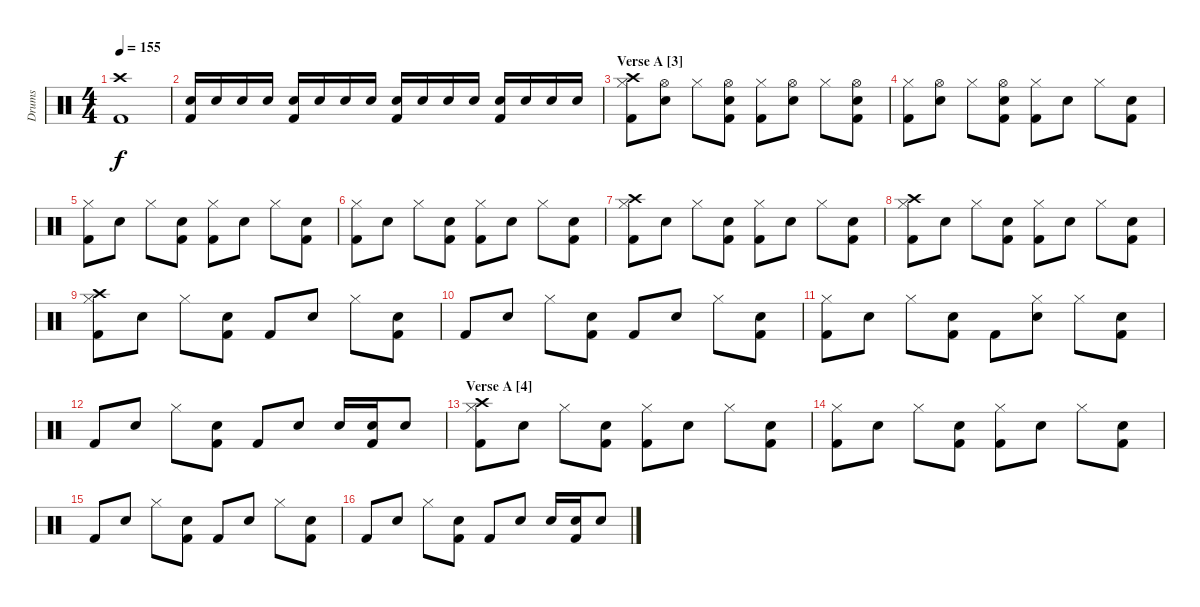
\track ("Drums" "Drums") {instrument percussion}
\staff {score}
\articulation defaults
\ts (4 4)
\tempo 155
\clef neutral
\ks c
("Crash high (hit)" "Kick (hit) 2").1{dy f} |
("Electric Snare (hit)" "Kick (hit) 2").16 "Electric Snare (hit)".16 "Electric Snare (hit)".16 "Electric Snare (hit)".16 ("Electric Snare (hit)" "Kick (hit) 2").16 "Electric Snare (hit)".16 "Electric Snare (hit)".16 "Electric Snare (hit)".16 ("Electric Snare (hit)" "Kick (hit) 2").16 "Electric Snare (hit)".16 "Electric Snare (hit)".16 "Electric Snare (hit)".16 ("Electric Snare (hit)" "Kick (hit) 2").16 "Electric Snare (hit)".16 "Electric Snare (hit)".16 "Electric Snare (hit)".16 |
\section ("" "Verse A [3]")
("Crash high (hit)" "Hi-Hat (closed)" "Kick (hit) 2").8 ("Hi-Hat (open)" "Electric Snare (hit)").8 "Hi-Hat (closed)".8 ("Hi-Hat (open)" "Electric Snare (hit)" "Kick (hit) 2").8 ("Hi-Hat (closed)" "Kick (hit) 2").8 ("Hi-Hat (open)" "Electric Snare (hit)").8 "Hi-Hat (closed)".8 ("Hi-Hat (open)" "Electric Snare (hit)" "Kick (hit) 2").8 |
("Hi-Hat (closed)" "Kick (hit) 2").8 ("Hi-Hat (open)" "Electric Snare (hit)").8 "Hi-Hat (closed)".8 ("Hi-Hat (open)" "Electric Snare (hit)" "Kick (hit) 2").8 ("Hi-Hat (closed)" "Kick (hit) 2").8 "Electric Snare (hit)".8 "Hi-Hat (closed)".8 ("Electric Snare (hit)" "Kick (hit) 2").8 |
("Hi-Hat (closed)" "Kick (hit) 2").8 "Electric Snare (hit)".8 "Hi-Hat (closed)".8 ("Electric Snare (hit)" "Kick (hit) 2").8 ("Hi-Hat (closed)" "Kick (hit) 2").8 "Electric Snare (hit)".8 "Hi-Hat (closed)".8 ("Electric Snare (hit)" "Kick (hit) 2").8 |
("Hi-Hat (closed)" "Kick (hit) 2").8 "Electric Snare (hit)".8 "Hi-Hat (closed)".8 ("Electric Snare (hit)" "Kick (hit) 2").8 ("Hi-Hat (closed)" "Kick (hit) 2").8 "Electric Snare (hit)".8 "Hi-Hat (closed)".8 ("Electric Snare (hit)" "Kick (hit) 2").8 |
("Crash high (hit)" "Hi-Hat (closed)" "Kick (hit) 2").8 "Electric Snare (hit)".8 "Hi-Hat (closed)".8 ("Electric Snare (hit)" "Kick (hit) 2").8 ("Hi-Hat (closed)" "Kick (hit) 2").8 "Electric Snare (hit)".8 "Hi-Hat (closed)".8 ("Electric Snare (hit)" "Kick (hit) 2").8 |
("Crash high (hit)" "Hi-Hat (closed)" "Kick (hit) 2").8 "Electric Snare (hit)".8 "Hi-Hat (closed)".8 ("Electric Snare (hit)" "Kick (hit) 2").8 ("Hi-Hat (closed)" "Kick (hit) 2").8 "Electric Snare (hit)".8 "Hi-Hat (closed)".8 ("Electric Snare (hit)" "Kick (hit) 2").8 |
("Crash high (hit)" "Hi-Hat (closed)" "Kick (hit) 2").8 "Electric Snare (hit)".8 "Hi-Hat (closed)".8 ("Electric Snare (hit)" "Kick (hit) 2").8 "Kick (hit) 2".8 "Electric Snare (hit)".8 "Hi-Hat (closed)".8 ("Electric Snare (hit)" "Kick (hit) 2").8 |
"Kick (hit) 2".8 "Electric Snare (hit)".8 "Hi-Hat (closed)".8 ("Electric Snare (hit)" "Kick (hit) 2").8 "Kick (hit) 2".8 "Electric Snare (hit)".8 "Hi-Hat (closed)".8 ("Electric Snare (hit)" "Kick (hit) 2").8 |
("Hi-Hat (closed)" "Kick (hit) 2").8 "Electric Snare (hit)".8 "Hi-Hat (closed)".8 ("Electric Snare (hit)" "Kick (hit) 2").8 "Kick (hit) 2".8 ("Hi-Hat (closed)" "Electric Snare (hit)").8 "Hi-Hat (closed)".8 ("Electric Snare (hit)" "Kick (hit) 2").8 |
"Kick (hit) 2".8 "Electric Snare (hit)".8 "Hi-Hat (closed)".8 ("Electric Snare (hit)" "Kick (hit) 2").8 "Kick (hit) 2".8 "Electric Snare (hit)".8 "Electric Snare (hit)".16 ("Electric Snare (hit)" "Kick (hit) 2").16 "Electric Snare (hit)".8 |
\section ("" "Verse A [4]")
("Crash high (hit)" "Hi-Hat (closed)" "Kick (hit) 2").8 "Electric Snare (hit)".8 "Hi-Hat (closed)".8 ("Electric Snare (hit)" "Kick (hit) 2").8 ("Hi-Hat (closed)" "Kick (hit) 2").8 "Electric Snare (hit)".8 "Hi-Hat (closed)".8 ("Electric Snare (hit)" "Kick (hit) 2").8 |
("Hi-Hat (closed)" "Kick (hit) 2").8 "Electric Snare (hit)".8 "Hi-Hat (closed)".8 ("Electric Snare (hit)" "Kick (hit) 2").8 ("Hi-Hat (closed)" "Kick (hit) 2").8 "Electric Snare (hit)".8 "Hi-Hat (closed)".8 ("Electric Snare (hit)" "Kick (hit) 2").8 |
"Kick (hit) 2".8 "Electric Snare (hit)".8 "Hi-Hat (closed)".8 ("Electric Snare (hit)" "Kick (hit) 2").8 "Kick (hit) 2".8 "Electric Snare (hit)".8 "Hi-Hat (closed)".8 ("Electric Snare (hit)" "Kick (hit) 2").8 |
"Kick (hit) 2".8 "Electric Snare (hit)".8 "Hi-Hat (closed)".8 ("Electric Snare (hit)" "Kick (hit) 2").8 "Kick (hit) 2".8 "Electric Snare (hit)".8 "Electric Snare (hit)".16 ("Electric Snare (hit)" "Kick (hit) 2").16 "Electric Snare (hit)".8
